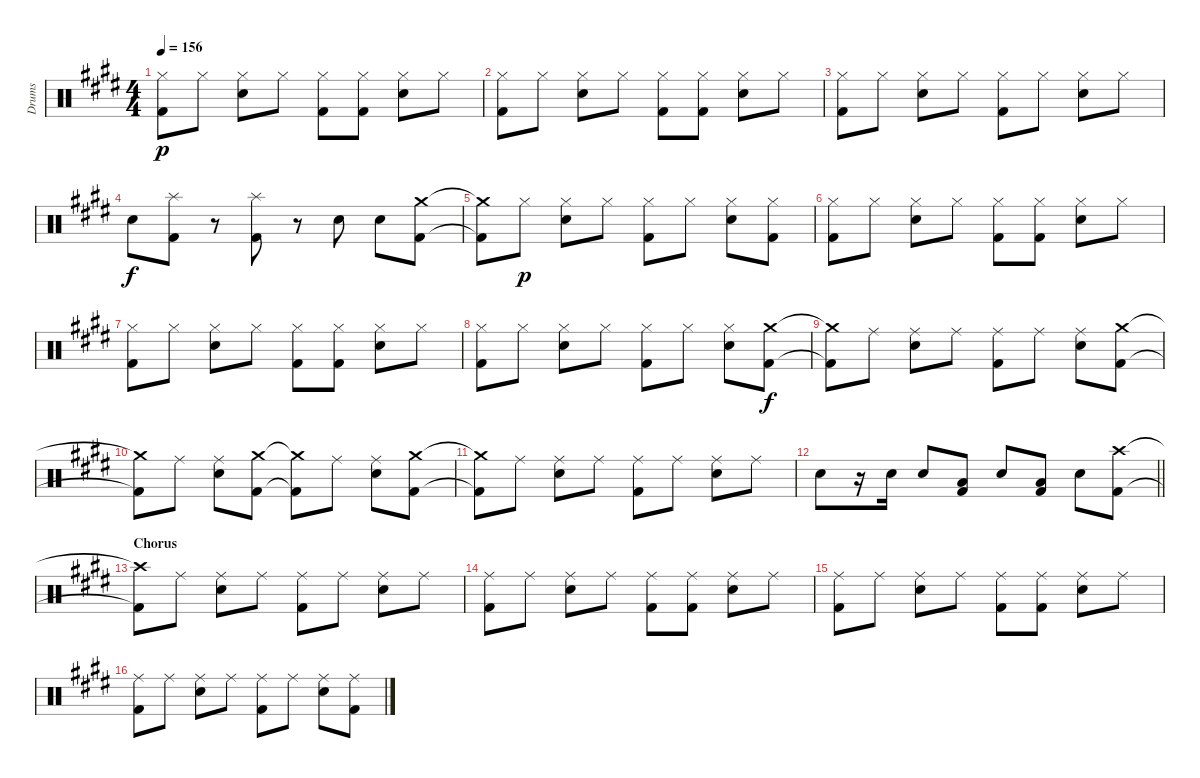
\track ("Drums" "Drums") {instrument percussion}
\staff {score}
\articulation defaults
\ts (4 4)
\tempo 156
\clef neutral
\ks e
("Hi-Hat (closed)" "Kick (hit) 2").8{dy p} "Hi-Hat (closed)".8 ("Hi-Hat (closed)" "Electric Snare (hit)").8 "Hi-Hat (closed)".8 ("Hi-Hat (closed)" "Kick (hit) 2").8 ("Hi-Hat (closed)" "Kick (hit) 2").8 ("Hi-Hat (closed)" "Electric Snare (hit)").8 "Hi-Hat (closed)".8 |
\ks c#minor
("Hi-Hat (closed)" "Kick (hit) 2").8 "Hi-Hat (closed)".8 ("Hi-Hat (closed)" "Electric Snare (hit)").8 "Hi-Hat (closed)".8 ("Hi-Hat (closed)" "Kick (hit) 2").8 ("Hi-Hat (closed)" "Kick (hit) 2").8 ("Hi-Hat (closed)" "Electric Snare (hit)").8 "Hi-Hat (closed)".8 |
("Hi-Hat (closed)" "Kick (hit) 2").8 "Hi-Hat (closed)".8 ("Hi-Hat (closed)" "Electric Snare (hit)").8 "Hi-Hat (closed)".8 ("Hi-Hat (closed)" "Kick (hit) 2").8 "Hi-Hat (closed)".8 ("Hi-Hat (closed)" "Electric Snare (hit)").8 "Hi-Hat (closed)".8 |
"Electric Snare (hit)".8{dy f} ("Splash (hit)" "Kick (hit) 2").8 r.8 ("Splash (hit)" "Kick (hit) 2").8 r.8 "Electric Snare (hit)".8 "Electric Snare (hit)".8 ("Crash medium (hit)" "Kick (hit) 2").8 |
\ks e
("Crash medium (hit)"{t} "Kick (hit) 2"{t}).8 "Hi-Hat (closed)".8{dy p} ("Hi-Hat (closed)" "Electric Snare (hit)").8 "Hi-Hat (closed)".8 ("Hi-Hat (closed)" "Kick (hit) 2").8 "Hi-Hat (closed)".8 ("Hi-Hat (closed)" "Electric Snare (hit)").8 ("Hi-Hat (closed)" "Kick (hit) 2").8 |
\ks c#minor
("Hi-Hat (closed)" "Kick (hit) 2").8 "Hi-Hat (closed)".8 ("Hi-Hat (closed)" "Electric Snare (hit)").8 "Hi-Hat (closed)".8 ("Hi-Hat (closed)" "Kick (hit) 2").8 ("Hi-Hat (closed)" "Kick (hit) 2").8 ("Hi-Hat (closed)" "Electric Snare (hit)").8 "Hi-Hat (closed)".8 |
("Hi-Hat (closed)" "Kick (hit) 2").8 "Hi-Hat (closed)".8 ("Hi-Hat (closed)" "Electric Snare (hit)").8 "Hi-Hat (closed)".8 ("Hi-Hat (closed)" "Kick (hit) 2").8 ("Hi-Hat (closed)" "Kick (hit) 2").8 ("Hi-Hat (closed)" "Electric Snare (hit)").8 "Hi-Hat (closed)".8 |
("Hi-Hat (closed)" "Kick (hit) 2").8 "Hi-Hat (closed)".8 ("Hi-Hat (closed)" "Electric Snare (hit)").8 "Hi-Hat (closed)".8 ("Hi-Hat (closed)" "Kick (hit) 2").8 "Hi-Hat (closed)".8 ("Hi-Hat (closed)" "Electric Snare (hit)").8 ("Crash medium (hit)" "Kick (hit) 2").8{dy f} |
("Crash medium (hit)"{t} "Kick (hit) 2"{t}).8 "Ride (middle)".8 ("Ride (middle)" "Electric Snare (hit)").8 "Ride (middle)".8 ("Ride (middle)" "Kick (hit) 2").8 "Ride (middle)".8 ("Ride (middle)" "Electric Snare (hit)").8 ("Crash medium (hit)" "Kick (hit) 2").8 |
("Crash medium (hit)"{t} "Kick (hit) 2"{t}).8 "Ride (middle)".8 ("Ride (middle)" "Electric Snare (hit)").8 ("Crash medium (hit)" "Kick (hit) 2").8 ("Crash medium (hit)"{t} "Kick (hit) 2"{t}).8 "Ride (middle)".8 ("Ride (middle)" "Electric Snare (hit)").8 ("Crash medium (hit)" "Kick (hit) 2").8 |
\ks e
("Crash medium (hit)"{t} "Kick (hit) 2"{t}).8 "Ride (middle)".8 ("Ride (middle)" "Electric Snare (hit)").8 "Ride (middle)".8 ("Ride (middle)" "Kick (hit) 2").8 "Ride (middle)".8 ("Ride (middle)" "Electric Snare (hit)").8 "Ride (middle)".8 |
\barLineRight lightlight
\ks c#minor "Electric Snare (hit)".8
r.16 "Electric Snare (hit)".16 "Electric Snare (hit)".8 ("Low Tom (hit)" "Kick (hit) 2").8 "Electric Snare (hit)".8 ("Low Tom (hit)" "Kick (hit) 2").8 "Electric Snare (hit)".8 ("Crash high (hit)" "Kick (hit) 2").8 |
\section ("" "Chorus")
("Crash high (hit)"{t} "Kick (hit) 2"{t}).8 "Ride (middle)".8 ("Ride (middle)" "Electric Snare (hit)").8 "Ride (middle)".8 ("Ride (middle)" "Kick (hit) 2").8 "Ride (middle)".8 ("Ride (middle)" "Electric Snare (hit)").8 "Ride (middle)".8 |
\ks e
("Ride (middle)" "Kick (hit) 2").8 "Ride (middle)".8 ("Ride (middle)" "Electric Snare (hit)").8 "Ride (middle)".8 ("Ride (middle)" "Kick (hit) 2").8 ("Ride (middle)" "Kick (hit) 2").8 ("Ride (middle)" "Electric Snare (hit)").8 "Ride (middle)".8 |
\ks c#minor
("Ride (middle)" "Kick (hit) 2").8 "Ride (middle)".8 ("Ride (middle)" "Electric Snare (hit)").8 "Ride (middle)".8 ("Ride (middle)" "Kick (hit) 2").8 ("Ride (middle)" "Kick (hit) 2").8 ("Ride (middle)" "Electric Snare (hit)").8 "Ride (middle)".8 |
("Ride (middle)" "Kick (hit) 2").8 "Ride (middle)".8 ("Ride (middle)" "Electric Snare (hit)").8 "Ride (middle)".8 ("Ride (middle)" "Kick (hit) 2").8 "Ride (middle)".8 ("Ride (middle)" "Electric Snare (hit)").8 ("Ride (middle)" "Kick (hit) 2").8
